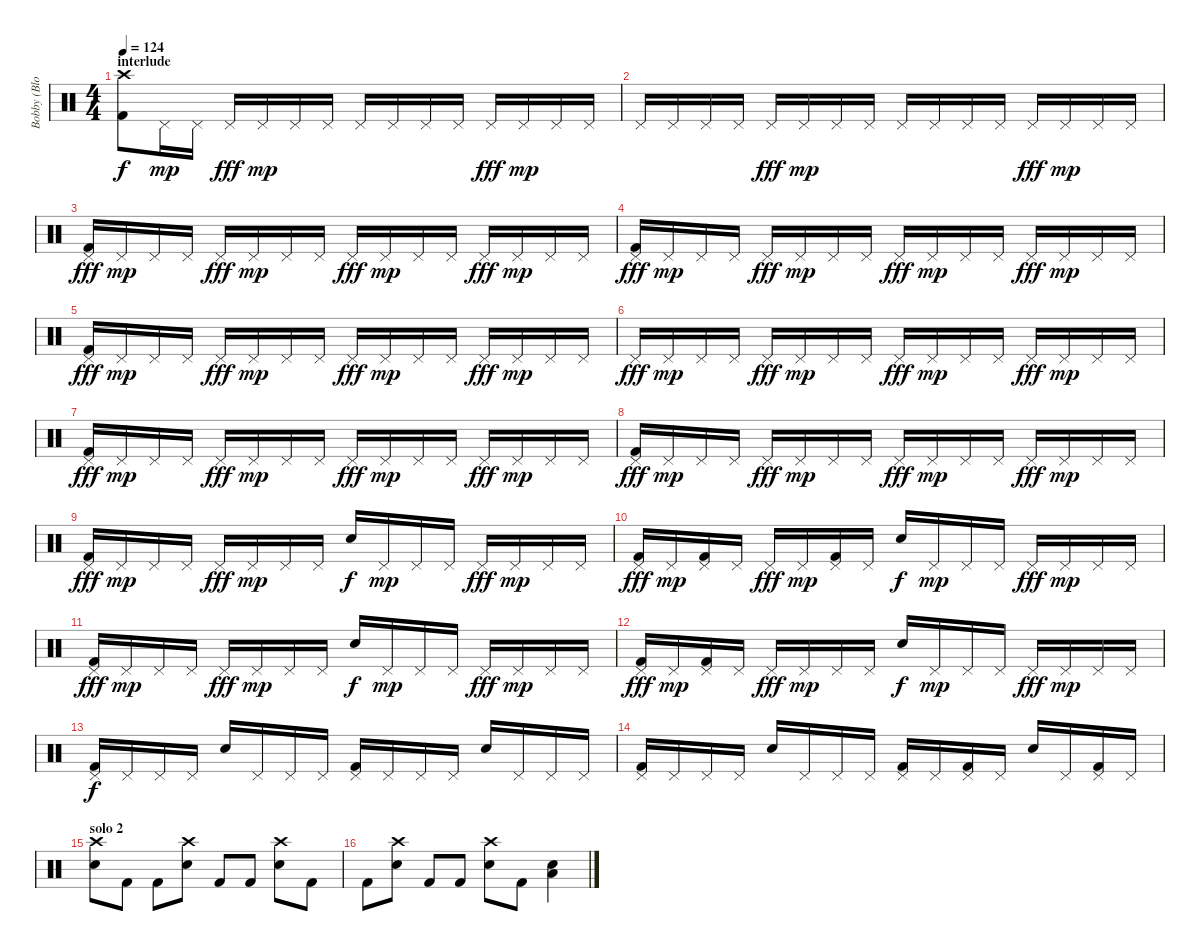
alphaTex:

\track ("Bobby (Blotz) Blotzer" "Bobby (Blo") {instrument percussion}
\staff {score}
\articulation defaults
\ts (4 4)
\section ("" "interlude")
\tempo 124
\clef neutral
\ks c
("Kick (hit) 2" "Crash high (hit)").8{dy f} "Pedal Hi-Hat (hit)".16{dy mp} "Pedal Hi-Hat (hit)".16 "Pedal Hi-Hat (hit)".16{dy fff} "Pedal Hi-Hat (hit)".16{dy mp} "Pedal Hi-Hat (hit)".16 "Pedal Hi-Hat (hit)".16 "Pedal Hi-Hat (hit)".16 "Pedal Hi-Hat (hit)".16 "Pedal Hi-Hat (hit)".16 "Pedal Hi-Hat (hit)".16 "Pedal Hi-Hat (hit)".16{dy fff} "Pedal Hi-Hat (hit)".16{dy mp} "Pedal Hi-Hat (hit)".16 "Pedal Hi-Hat (hit)".16 |
"Pedal Hi-Hat (hit)".16 "Pedal Hi-Hat (hit)".16 "Pedal Hi-Hat (hit)".16 "Pedal Hi-Hat (hit)".16 "Pedal Hi-Hat (hit)".16{dy fff} "Pedal Hi-Hat (hit)".16{dy mp} "Pedal Hi-Hat (hit)".16 "Pedal Hi-Hat (hit)".16 "Pedal Hi-Hat (hit)".16 "Pedal Hi-Hat (hit)".16 "Pedal Hi-Hat (hit)".16 "Pedal Hi-Hat (hit)".16 "Pedal Hi-Hat (hit)".16{dy fff} "Pedal Hi-Hat (hit)".16{dy mp} "Pedal Hi-Hat (hit)".16 "Pedal Hi-Hat (hit)".16 |
("Kick (hit) 2" "Pedal Hi-Hat (hit)").16{dy fff} "Pedal Hi-Hat (hit)".16{dy mp} "Pedal Hi-Hat (hit)".16 "Pedal Hi-Hat (hit)".16 "Pedal Hi-Hat (hit)".16{dy fff} "Pedal Hi-Hat (hit)".16{dy mp} "Pedal Hi-Hat (hit)".16 "Pedal Hi-Hat (hit)".16 "Pedal Hi-Hat (hit)".16{dy fff} "Pedal Hi-Hat (hit)".16{dy mp} "Pedal Hi-Hat (hit)".16 "Pedal Hi-Hat (hit)".16 "Pedal Hi-Hat (hit)".16{dy fff} "Pedal Hi-Hat (hit)".16{dy mp} "Pedal Hi-Hat (hit)".16 "Pedal Hi-Hat (hit)".16 |
("Kick (hit) 2" "Pedal Hi-Hat (hit)").16{dy fff} "Pedal Hi-Hat (hit)".16{dy mp} "Pedal Hi-Hat (hit)".16 "Pedal Hi-Hat (hit)".16 "Pedal Hi-Hat (hit)".16{dy fff} "Pedal Hi-Hat (hit)".16{dy mp} "Pedal Hi-Hat (hit)".16 "Pedal Hi-Hat (hit)".16 "Pedal Hi-Hat (hit)".16{dy fff} "Pedal Hi-Hat (hit)".16{dy mp} "Pedal Hi-Hat (hit)".16 "Pedal Hi-Hat (hit)".16 "Pedal Hi-Hat (hit)".16{dy fff} "Pedal Hi-Hat (hit)".16{dy mp} "Pedal Hi-Hat (hit)".16 "Pedal Hi-Hat (hit)".16 |
("Kick (hit) 2" "Pedal Hi-Hat (hit)").16{dy fff} "Pedal Hi-Hat (hit)".16{dy mp} "Pedal Hi-Hat (hit)".16 "Pedal Hi-Hat (hit)".16 "Pedal Hi-Hat (hit)".16{dy fff} "Pedal Hi-Hat (hit)".16{dy mp} "Pedal Hi-Hat (hit)".16 "Pedal Hi-Hat (hit)".16 "Pedal Hi-Hat (hit)".16{dy fff} "Pedal Hi-Hat (hit)".16{dy mp} "Pedal Hi-Hat (hit)".16 "Pedal Hi-Hat (hit)".16 "Pedal Hi-Hat (hit)".16{dy fff} "Pedal Hi-Hat (hit)".16{dy mp} "Pedal Hi-Hat (hit)".16 "Pedal Hi-Hat (hit)".16 |
"Pedal Hi-Hat (hit)".16{dy fff} "Pedal Hi-Hat (hit)".16{dy mp} "Pedal Hi-Hat (hit)".16 "Pedal Hi-Hat (hit)".16 "Pedal Hi-Hat (hit)".16{dy fff} "Pedal Hi-Hat (hit)".16{dy mp} "Pedal Hi-Hat (hit)".16 "Pedal Hi-Hat (hit)".16 "Pedal Hi-Hat (hit)".16{dy fff} "Pedal Hi-Hat (hit)".16{dy mp} "Pedal Hi-Hat (hit)".16 "Pedal Hi-Hat (hit)".16 "Pedal Hi-Hat (hit)".16{dy fff} "Pedal Hi-Hat (hit)".16{dy mp} "Pedal Hi-Hat (hit)".16 "Pedal Hi-Hat (hit)".16 |
("Kick (hit) 2" "Pedal Hi-Hat (hit)").16{dy fff} "Pedal Hi-Hat (hit)".16{dy mp} "Pedal Hi-Hat (hit)".16 "Pedal Hi-Hat (hit)".16 "Pedal Hi-Hat (hit)".16{dy fff} "Pedal Hi-Hat (hit)".16{dy mp} "Pedal Hi-Hat (hit)".16 "Pedal Hi-Hat (hit)".16 "Pedal Hi-Hat (hit)".16{dy fff} "Pedal Hi-Hat (hit)".16{dy mp} "Pedal Hi-Hat (hit)".16 "Pedal Hi-Hat (hit)".16 "Pedal Hi-Hat (hit)".16{dy fff} "Pedal Hi-Hat (hit)".16{dy mp} "Pedal Hi-Hat (hit)".16 "Pedal Hi-Hat (hit)".16 |
("Kick (hit) 2" "Pedal Hi-Hat (hit)").16{dy fff} "Pedal Hi-Hat (hit)".16{dy mp} "Pedal Hi-Hat (hit)".16 "Pedal Hi-Hat (hit)".16 "Pedal Hi-Hat (hit)".16{dy fff} "Pedal Hi-Hat (hit)".16{dy mp} "Pedal Hi-Hat (hit)".16 "Pedal Hi-Hat (hit)".16 "Pedal Hi-Hat (hit)".16{dy fff} "Pedal Hi-Hat (hit)".16{dy mp} "Pedal Hi-Hat (hit)".16 "Pedal Hi-Hat (hit)".16 "Pedal Hi-Hat (hit)".16{dy fff} "Pedal Hi-Hat (hit)".16{dy mp} "Pedal Hi-Hat (hit)".16 "Pedal Hi-Hat (hit)".16 |
("Kick (hit) 2" "Pedal Hi-Hat (hit)").16{dy fff} "Pedal Hi-Hat (hit)".16{dy mp} "Pedal Hi-Hat (hit)".16 "Pedal Hi-Hat (hit)".16 "Pedal Hi-Hat (hit)".16{dy fff} "Pedal Hi-Hat (hit)".16{dy mp} "Pedal Hi-Hat (hit)".16 "Pedal Hi-Hat (hit)".16 "Snare (hit) 2".16{dy f} "Pedal Hi-Hat (hit)".16{dy mp} "Pedal Hi-Hat (hit)".16 "Pedal Hi-Hat (hit)".16 "Pedal Hi-Hat (hit)".16{dy fff} "Pedal Hi-Hat (hit)".16{dy mp} "Pedal Hi-Hat (hit)".16 "Pedal Hi-Hat (hit)".16 |
("Kick (hit) 2" "Pedal Hi-Hat (hit)").16{dy fff} "Pedal Hi-Hat (hit)".16{dy mp} ("Kick (hit) 2" "Pedal Hi-Hat (hit)").16 "Pedal Hi-Hat (hit)".16 "Pedal Hi-Hat (hit)".16{dy fff} "Pedal Hi-Hat (hit)".16{dy mp} ("Kick (hit) 2" "Pedal Hi-Hat (hit)").16 "Pedal Hi-Hat (hit)".16 "Snare (hit) 2".16{dy f} "Pedal Hi-Hat (hit)".16{dy mp} "Pedal Hi-Hat (hit)".16 "Pedal Hi-Hat (hit)".16 "Pedal Hi-Hat (hit)".16{dy fff} "Pedal Hi-Hat (hit)".16{dy mp} "Pedal Hi-Hat (hit)".16 "Pedal Hi-Hat (hit)".16 |
("Kick (hit) 2" "Pedal Hi-Hat (hit)").16{dy fff} "Pedal Hi-Hat (hit)".16{dy mp} "Pedal Hi-Hat (hit)".16 "Pedal Hi-Hat (hit)".16 "Pedal Hi-Hat (hit)".16{dy fff} "Pedal Hi-Hat (hit)".16{dy mp} "Pedal Hi-Hat (hit)".16 "Pedal Hi-Hat (hit)".16 "Snare (hit) 2".16{dy f} "Pedal Hi-Hat (hit)".16{dy mp} "Pedal Hi-Hat (hit)".16 "Pedal Hi-Hat (hit)".16 "Pedal Hi-Hat (hit)".16{dy fff} "Pedal Hi-Hat (hit)".16{dy mp} "Pedal Hi-Hat (hit)".16 "Pedal Hi-Hat (hit)".16 |
("Kick (hit) 2" "Pedal Hi-Hat (hit)").16{dy fff} "Pedal Hi-Hat (hit)".16{dy mp} ("Kick (hit) 2" "Pedal Hi-Hat (hit)").16 "Pedal Hi-Hat (hit)".16 "Pedal Hi-Hat (hit)".16{dy fff} "Pedal Hi-Hat (hit)".16{dy mp} "Pedal Hi-Hat (hit)".16 "Pedal Hi-Hat (hit)".16 "Snare (hit) 2".16{dy f} "Pedal Hi-Hat (hit)".16{dy mp} "Pedal Hi-Hat (hit)".16 "Pedal Hi-Hat (hit)".16 "Pedal Hi-Hat (hit)".16{dy fff} "Pedal Hi-Hat (hit)".16{dy mp} "Pedal Hi-Hat (hit)".16 "Pedal Hi-Hat (hit)".16 |
("Kick (hit) 2" "Pedal Hi-Hat (hit)").16{dy f} "Pedal Hi-Hat (hit)".16 "Pedal Hi-Hat (hit)".16 "Pedal Hi-Hat (hit)".16 "Snare (hit) 2".16 "Pedal Hi-Hat (hit)".16 "Pedal Hi-Hat (hit)".16 "Pedal Hi-Hat (hit)".16 ("Kick (hit) 2" "Pedal Hi-Hat (hit)").16 "Pedal Hi-Hat (hit)".16 "Pedal Hi-Hat (hit)".16 "Pedal Hi-Hat (hit)".16 "Snare (hit) 2".16 "Pedal Hi-Hat (hit)".16 "Pedal Hi-Hat (hit)".16 "Pedal Hi-Hat (hit)".16 |
("Kick (hit) 2" "Pedal Hi-Hat (hit)").16 "Pedal Hi-Hat (hit)".16 "Pedal Hi-Hat (hit)".16 "Pedal Hi-Hat (hit)".16 "Snare (hit) 2".16 "Pedal Hi-Hat (hit)".16 "Pedal Hi-Hat (hit)".16 "Pedal Hi-Hat (hit)".16 ("Kick (hit) 2" "Pedal Hi-Hat (hit)").16 "Pedal Hi-Hat (hit)".16 ("Kick (hit) 2" "Pedal Hi-Hat (hit)").16 "Pedal Hi-Hat (hit)".16 "Snare (hit) 2".16 "Pedal Hi-Hat (hit)".16 ("Kick (hit) 2" "Pedal Hi-Hat (hit)").16 "Pedal Hi-Hat (hit)".16 |
\section ("" "solo 2")
("Crash high (hit)" "Snare (hit) 2").8 "Kick (hit) 2".8 "Kick (hit) 2".8 ("Crash high (hit)" "Snare (hit) 2").8 "Kick (hit) 2".8 "Kick (hit) 2".8 ("Crash high (hit)" "Snare (hit) 2").8 "Kick (hit) 2".8 |
"Kick (hit) 2".8 ("Crash high (hit)" "Snare (hit) 2").8 "Kick (hit) 2".8 "Kick (hit) 2".8 ("Crash high (hit)" "Snare (hit) 2").8 "Kick (hit) 2".8 ("Low Tom (hit)" "Snare (hit) 2").4
